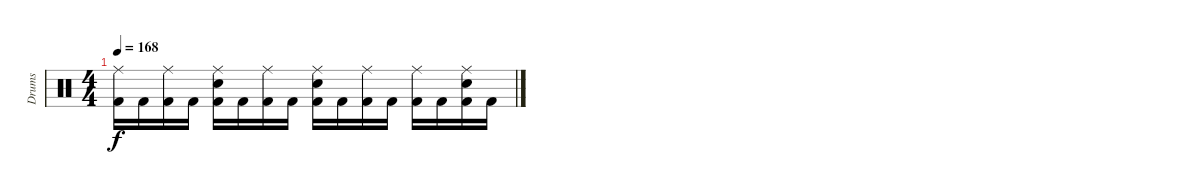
\track ("Drums" "Drums") {instrument percussion}
\staff {score}
\articulation defaults
\ts (4 4)
\tempo 168
\clef neutral
\ks c
("Kick (hit) 2" "Ride (middle)").16{dy f} "Kick (hit) 2".16 ("Kick (hit) 2" "Ride (middle)").16 "Kick (hit) 2".16 ("Kick (hit) 2" "Snare (hit) 2" "Ride (middle)").16 "Kick (hit) 2".16 ("Kick (hit) 2" "Ride (middle)").16 "Kick (hit) 2".16 ("Kick (hit) 2" "Snare (hit) 2" "Ride (middle)").16 "Kick (hit) 2".16 ("Kick (hit) 2" "Ride (middle)").16 "Kick (hit) 2".16 ("Kick (hit) 2" "Ride (middle)").16 "Kick (hit) 2".16 ("Kick (hit) 2" "Snare (hit) 2" "Ride (middle)").16 "Kick (hit) 2".16
